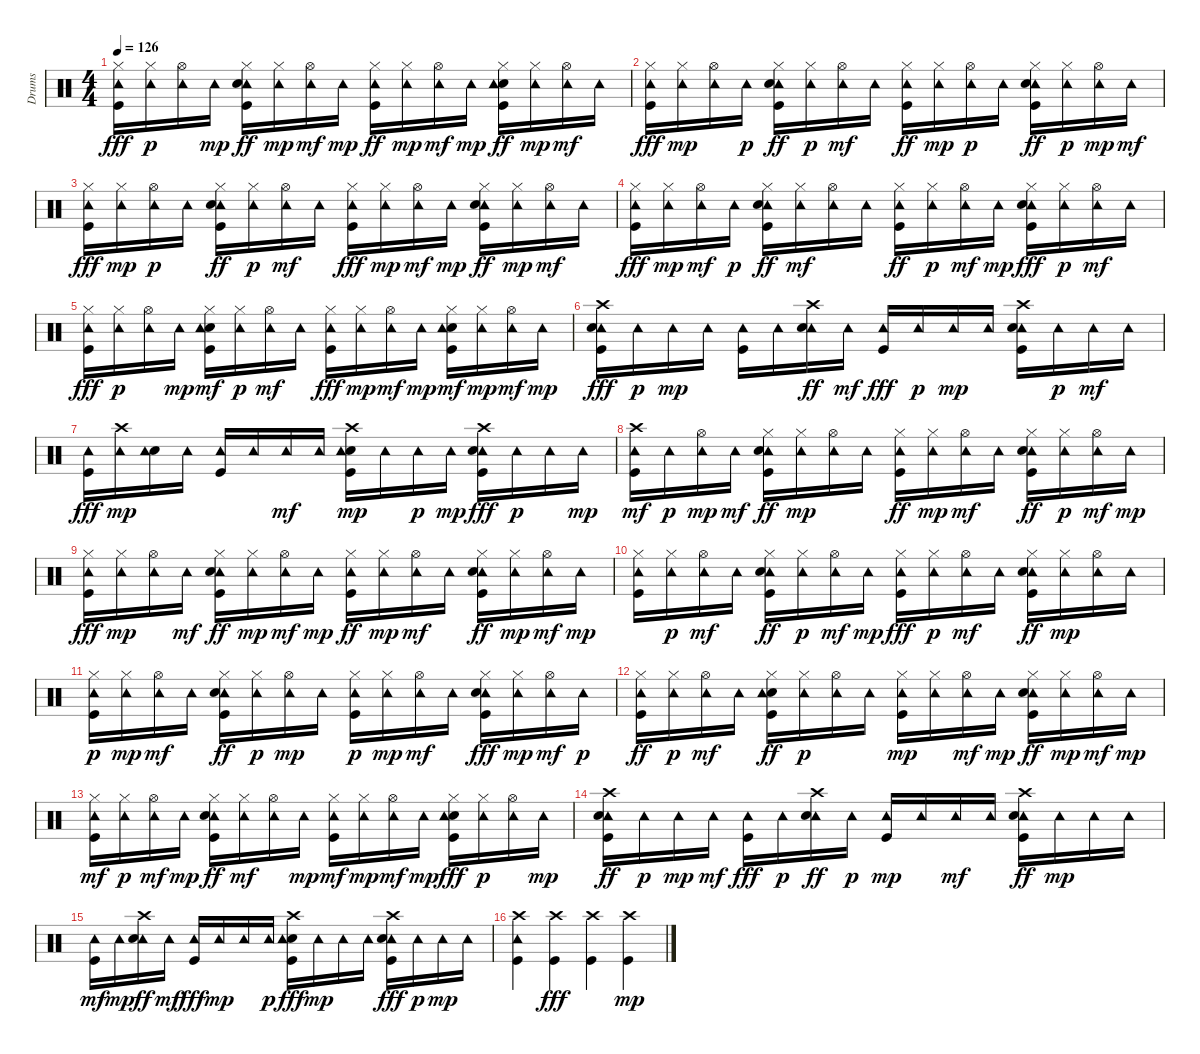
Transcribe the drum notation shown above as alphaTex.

\track ("Drums" "Drums") {instrument percussion}
\staff {score}
\articulation defaults
\ts (4 4)
\tempo 126
\clef neutral
\ks c
("Tambourine (hit)" "Hi-Hat (closed)" "Kick (hit)").16{dy fff} ("Tambourine (hit)" "Hi-Hat (closed)").16{dy p} ("Hi-Hat (open)" "Tambourine (hit)").16 "Tambourine (hit)".16{dy mp} ("Tambourine (hit)" "Hi-Hat (closed)" "Kick (hit)" "Snare (hit) 2").16{dy ff} ("Tambourine (hit)" "Hi-Hat (closed)").16{dy mp} ("Tambourine (hit)" "Hi-Hat (open)").16{dy mf} "Tambourine (hit)".16{dy mp} ("Tambourine (hit)" "Kick (hit)" "Hi-Hat (closed)").16{dy ff} ("Tambourine (hit)" "Hi-Hat (closed)").16{dy mp} ("Tambourine (hit)" "Hi-Hat (open)").16{dy mf} "Tambourine (hit)".16{dy mp} ("Kick (hit)" "Snare (hit) 2" "Tambourine (hit)" "Hi-Hat (closed)").16{dy ff} ("Tambourine (hit)" "Hi-Hat (closed)").16{dy mp} ("Hi-Hat (open)" "Tambourine (hit)").16{dy mf} "Tambourine (hit)".16 |
("Tambourine (hit)" "Hi-Hat (closed)" "Kick (hit)").16{dy fff} ("Hi-Hat (closed)" "Tambourine (hit)").16{dy mp} ("Hi-Hat (open)" "Tambourine (hit)").16 "Tambourine (hit)".16{dy p} ("Hi-Hat (closed)" "Tambourine (hit)" "Kick (hit)" "Snare (hit) 2").16{dy ff} ("Hi-Hat (closed)" "Tambourine (hit)").16{dy p} ("Hi-Hat (open)" "Tambourine (hit)").16{dy mf} "Tambourine (hit)".16 ("Tambourine (hit)" "Kick (hit)" "Hi-Hat (closed)").16{dy ff} ("Tambourine (hit)" "Hi-Hat (closed)").16{dy mp} ("Tambourine (hit)" "Hi-Hat (open)").16{dy p} "Tambourine (hit)".16 ("Tambourine (hit)" "Hi-Hat (closed)" "Kick (hit)" "Snare (hit) 2").16{dy ff} ("Tambourine (hit)" "Hi-Hat (closed)").16{dy p} ("Tambourine (hit)" "Hi-Hat (open)").16{dy mp} "Tambourine (hit)".16{dy mf} |
("Hi-Hat (closed)" "Tambourine (hit)" "Kick (hit)").16{dy fff} ("Hi-Hat (closed)" "Tambourine (hit)").16{dy mp} ("Hi-Hat (open)" "Tambourine (hit)").16{dy p} "Tambourine (hit)".16 ("Hi-Hat (closed)" "Tambourine (hit)" "Kick (hit)" "Snare (hit) 2").16{dy ff} ("Hi-Hat (closed)" "Tambourine (hit)").16{dy p} ("Hi-Hat (open)" "Tambourine (hit)").16{dy mf} "Tambourine (hit)".16 ("Tambourine (hit)" "Hi-Hat (closed)" "Kick (hit)").16{dy fff} ("Tambourine (hit)" "Hi-Hat (closed)").16{dy mp} ("Tambourine (hit)" "Hi-Hat (open)").16{dy mf} "Tambourine (hit)".16{dy mp} ("Tambourine (hit)" "Hi-Hat (closed)" "Kick (hit)" "Snare (hit) 2").16{dy ff} ("Tambourine (hit)" "Hi-Hat (closed)").16{dy mp} ("Hi-Hat (open)" "Tambourine (hit)").16{dy mf} "Tambourine (hit)".16 |
("Tambourine (hit)" "Hi-Hat (closed)" "Kick (hit)").16{dy fff} ("Tambourine (hit)" "Hi-Hat (closed)").16{dy mp} ("Tambourine (hit)" "Hi-Hat (open)").16{dy mf} "Tambourine (hit)".16{dy p} ("Kick (hit)" "Tambourine (hit)" "Hi-Hat (closed)" "Snare (hit) 2").16{dy ff} ("Tambourine (hit)" "Hi-Hat (closed)").16{dy mf} ("Tambourine (hit)" "Hi-Hat (open)").16 "Tambourine (hit)".16 ("Tambourine (hit)" "Kick (hit)" "Hi-Hat (closed)").16{dy ff} ("Tambourine (hit)" "Hi-Hat (closed)").16{dy p} ("Tambourine (hit)" "Hi-Hat (open)").16{dy mf} "Tambourine (hit)".16{dy mp} ("Hi-Hat (closed)" "Tambourine (hit)" "Kick (hit)" "Snare (hit) 2").16{dy fff} ("Hi-Hat (closed)" "Tambourine (hit)").16{dy p} ("Hi-Hat (open)" "Tambourine (hit)").16{dy mf} "Tambourine (hit)".16 |
("Tambourine (hit)" "Hi-Hat (closed)" "Kick (hit)").16{dy fff} ("Tambourine (hit)" "Hi-Hat (closed)").16{dy p} ("Hi-Hat (open)" "Tambourine (hit)").16 "Tambourine (hit)".16{dy mp} ("Hi-Hat (closed)" "Kick (hit)" "Snare (hit) 2" "Tambourine (hit)").16{dy mf} ("Hi-Hat (closed)" "Tambourine (hit)").16{dy p} ("Tambourine (hit)" "Hi-Hat (open)").16{dy mf} "Tambourine (hit)".16 ("Tambourine (hit)" "Hi-Hat (closed)" "Kick (hit)").16{dy fff} ("Tambourine (hit)" "Hi-Hat (closed)").16{dy mp} ("Tambourine (hit)" "Hi-Hat (open)").16{dy mf} "Tambourine (hit)".16{dy mp} ("Kick (hit)" "Snare (hit) 2" "Tambourine (hit)" "Hi-Hat (closed)").16{dy mf} ("Hi-Hat (closed)" "Tambourine (hit)").16{dy mp} ("Tambourine (hit)" "Hi-Hat (open)").16{dy mf} "Tambourine (hit)".16{dy mp} |
("Kick (hit)" "Tambourine (hit)" "Crash high (hit)" "Snare (hit) 2").16{dy fff} "Tambourine (hit)".16{dy p} "Tambourine (hit)".16{dy mp} "Tambourine (hit)".16 ("Kick (hit)" "Tambourine (hit)").16 "Tambourine (hit)".16 ("Crash high (hit)" "Tambourine (hit)" "Snare (hit) 2").16{dy ff} "Tambourine (hit)".16{dy mf} ("Tambourine (hit)" "Kick (hit)").16{dy fff} "Tambourine (hit)".16{dy p} "Tambourine (hit)".16{dy mp} "Tambourine (hit)".16 ("Tambourine (hit)" "Snare (hit) 2" "Kick (hit)" "Crash high (hit)").16 "Tambourine (hit)".16{dy p} "Tambourine (hit)".16{dy mf} "Tambourine (hit)".16 |
("Tambourine (hit)" "Kick (hit)").16{dy fff} ("Crash high (hit)" "Tambourine (hit)").16{dy mp} ("Snare (hit) 2" "Tambourine (hit)").16 "Tambourine (hit)".16 ("Kick (hit)" "Tambourine (hit)").16 "Tambourine (hit)".16 "Tambourine (hit)".16{dy mf} "Tambourine (hit)".16 ("Snare (hit) 2" "Tambourine (hit)" "Kick (hit)" "Crash high (hit)").16{dy mp} "Tambourine (hit)".16 "Tambourine (hit)".16{dy p} "Tambourine (hit)".16{dy mp} ("Kick (hit)" "Tambourine (hit)" "Crash high (hit)" "Snare (hit) 2").16{dy fff} "Tambourine (hit)".16{dy p} "Tambourine (hit)".16 "Tambourine (hit)".16{dy mp} |
("Crash high (hit)" "Kick (hit)" "Tambourine (hit)").16{dy mf} "Tambourine (hit)".16{dy p} ("Hi-Hat (open)" "Tambourine (hit)").16{dy mp} "Tambourine (hit)".16{dy mf} ("Tambourine (hit)" "Hi-Hat (closed)" "Kick (hit)" "Snare (hit) 2").16{dy ff} ("Hi-Hat (closed)" "Tambourine (hit)").16{dy mp} ("Hi-Hat (open)" "Tambourine (hit)").16 "Tambourine (hit)".16 ("Kick (hit)" "Tambourine (hit)" "Hi-Hat (closed)").16{dy ff} ("Hi-Hat (closed)" "Tambourine (hit)").16{dy mp} ("Tambourine (hit)" "Hi-Hat (open)").16{dy mf} "Tambourine (hit)".16 ("Tambourine (hit)" "Kick (hit)" "Snare (hit) 2" "Hi-Hat (closed)").16{dy ff} ("Tambourine (hit)" "Hi-Hat (closed)").16{dy p} ("Tambourine (hit)" "Hi-Hat (open)").16{dy mf} "Tambourine (hit)".16{dy mp} |
("Tambourine (hit)" "Hi-Hat (closed)" "Kick (hit)").16{dy fff} ("Hi-Hat (closed)" "Tambourine (hit)").16{dy mp} ("Hi-Hat (open)" "Tambourine (hit)").16 "Tambourine (hit)".16{dy mf} ("Tambourine (hit)" "Kick (hit)" "Snare (hit) 2" "Hi-Hat (closed)").16{dy ff} ("Tambourine (hit)" "Hi-Hat (closed)").16{dy mp} ("Tambourine (hit)" "Hi-Hat (open)").16{dy mf} "Tambourine (hit)".16{dy mp} ("Tambourine (hit)" "Kick (hit)" "Hi-Hat (closed)").16{dy ff} ("Tambourine (hit)" "Hi-Hat (closed)").16{dy mp} ("Tambourine (hit)" "Hi-Hat (open)").16{dy mf} "Tambourine (hit)".16 ("Tambourine (hit)" "Kick (hit)" "Snare (hit) 2" "Hi-Hat (closed)").16{dy ff} ("Tambourine (hit)" "Hi-Hat (closed)").16{dy mp} ("Tambourine (hit)" "Hi-Hat (open)").16{dy mf} "Tambourine (hit)".16{dy mp} |
("Hi-Hat (closed)" "Kick (hit)" "Tambourine (hit)").16 ("Hi-Hat (closed)" "Tambourine (hit)").16{dy p} ("Tambourine (hit)" "Hi-Hat (open)").16{dy mf} "Tambourine (hit)".16 ("Tambourine (hit)" "Hi-Hat (closed)" "Kick (hit)" "Snare (hit) 2").16{dy ff} ("Tambourine (hit)" "Hi-Hat (closed)").16{dy p} ("Tambourine (hit)" "Hi-Hat (open)").16{dy mf} "Tambourine (hit)".16{dy mp} ("Tambourine (hit)" "Hi-Hat (closed)" "Kick (hit)").16{dy fff} ("Tambourine (hit)" "Hi-Hat (closed)").16{dy p} ("Tambourine (hit)" "Hi-Hat (open)").16{dy mf} "Tambourine (hit)".16 ("Tambourine (hit)" "Hi-Hat (closed)" "Kick (hit)" "Snare (hit) 2").16{dy ff} ("Tambourine (hit)" "Hi-Hat (closed)").16{dy mp} ("Hi-Hat (open)" "Tambourine (hit)").16 "Tambourine (hit)".16 |
("Hi-Hat (closed)" "Kick (hit)" "Tambourine (hit)").16{dy p} ("Tambourine (hit)" "Hi-Hat (closed)").16{dy mp} ("Tambourine (hit)" "Hi-Hat (open)").16{dy mf} "Tambourine (hit)".16 ("Hi-Hat (closed)" "Tambourine (hit)" "Kick (hit)" "Snare (hit) 2").16{dy ff} ("Hi-Hat (closed)" "Tambourine (hit)").16{dy p} ("Hi-Hat (open)" "Tambourine (hit)").16{dy mp} "Tambourine (hit)".16 ("Hi-Hat (closed)" "Kick (hit)" "Tambourine (hit)").16{dy p} ("Hi-Hat (closed)" "Tambourine (hit)").16{dy mp} ("Tambourine (hit)" "Hi-Hat (open)").16{dy mf} "Tambourine (hit)".16 ("Tambourine (hit)" "Hi-Hat (closed)" "Kick (hit)" "Snare (hit) 2").16{dy fff} ("Tambourine (hit)" "Hi-Hat (closed)").16{dy mp} ("Tambourine (hit)" "Hi-Hat (open)").16{dy mf} "Tambourine (hit)".16{dy p} |
("Kick (hit)" "Tambourine (hit)" "Hi-Hat (closed)").16{dy ff} ("Tambourine (hit)" "Hi-Hat (closed)").16{dy p} ("Tambourine (hit)" "Hi-Hat (open)").16{dy mf} "Tambourine (hit)".16 ("Kick (hit)" "Snare (hit) 2" "Tambourine (hit)" "Hi-Hat (closed)").16{dy ff} ("Tambourine (hit)" "Hi-Hat (closed)").16{dy p} ("Hi-Hat (open)" "Tambourine (hit)").16 "Tambourine (hit)".16 ("Kick (hit)" "Hi-Hat (closed)" "Tambourine (hit)").16{dy mp} ("Hi-Hat (closed)" "Tambourine (hit)").16 ("Tambourine (hit)" "Hi-Hat (open)").16{dy mf} "Tambourine (hit)".16{dy mp} ("Tambourine (hit)" "Hi-Hat (closed)" "Kick (hit)" "Snare (hit) 2").16{dy ff} ("Hi-Hat (closed)" "Tambourine (hit)").16{dy mp} ("Tambourine (hit)" "Hi-Hat (open)").16{dy mf} "Tambourine (hit)".16{dy mp} |
("Kick (hit)" "Hi-Hat (closed)" "Tambourine (hit)").16{dy mf} ("Hi-Hat (closed)" "Tambourine (hit)").16{dy p} ("Tambourine (hit)" "Hi-Hat (open)").16{dy mf} "Tambourine (hit)".16{dy mp} ("Tambourine (hit)" "Hi-Hat (closed)" "Kick (hit)" "Snare (hit) 2").16{dy ff} ("Tambourine (hit)" "Hi-Hat (closed)").16{dy mf} ("Tambourine (hit)" "Hi-Hat (open)").16 "Tambourine (hit)".16{dy mp} ("Kick (hit)" "Hi-Hat (closed)" "Tambourine (hit)").16{dy mf} ("Hi-Hat (closed)" "Tambourine (hit)").16{dy mp} ("Tambourine (hit)" "Hi-Hat (open)").16{dy mf} "Tambourine (hit)".16{dy mp} ("Kick (hit)" "Snare (hit) 2" "Tambourine (hit)" "Hi-Hat (closed)").16{dy fff} ("Hi-Hat (closed)" "Tambourine (hit)").16{dy p} ("Hi-Hat (open)" "Tambourine (hit)").16 "Tambourine (hit)".16{dy mp} |
("Kick (hit)" "Crash high (hit)" "Tambourine (hit)" "Snare (hit) 2").16{dy ff} "Tambourine (hit)".16{dy p} "Tambourine (hit)".16{dy mp} "Tambourine (hit)".16{dy mf} ("Kick (hit)" "Tambourine (hit)").16{dy fff} "Tambourine (hit)".16{dy p} ("Crash high (hit)" "Tambourine (hit)" "Snare (hit) 2").16{dy ff} "Tambourine (hit)".16{dy p} ("Kick (hit)" "Tambourine (hit)").16{dy mp} "Tambourine (hit)".16 "Tambourine (hit)".16{dy mf} "Tambourine (hit)".16 ("Crash high (hit)" "Kick (hit)" "Tambourine (hit)" "Snare (hit) 2").16{dy ff} "Tambourine (hit)".16{dy mp} "Tambourine (hit)".16 "Tambourine (hit)".16 |
("Kick (hit)" "Tambourine (hit)").16{dy mf} "Tambourine (hit)".16{dy mp} ("Crash high (hit)" "Tambourine (hit)" "Snare (hit) 2").16{dy ff} "Tambourine (hit)".16{dy mf} ("Tambourine (hit)" "Kick (hit)").16{dy fff} "Tambourine (hit)".16{dy mp} "Tambourine (hit)".16 "Tambourine (hit)".16{dy p} ("Snare (hit) 2" "Tambourine (hit)" "Crash high (hit)" "Kick (hit)").16{dy fff} "Tambourine (hit)".16{dy mp} "Tambourine (hit)".16 "Tambourine (hit)".16 ("Crash high (hit)" "Tambourine (hit)" "Snare (hit) 2" "Kick (hit)").16{dy fff} "Tambourine (hit)".16{dy p} "Tambourine (hit)".16{dy mp} "Tambourine (hit)".16 |
("Tambourine (hit)" "Kick (hit)" "Crash high (hit)").4 ("Crash high (hit)" "Kick (hit)").4{dy fff} ("Crash high (hit)" "Kick (hit)").4 ("Kick (hit)" "Crash high (hit)").4{dy mp}
